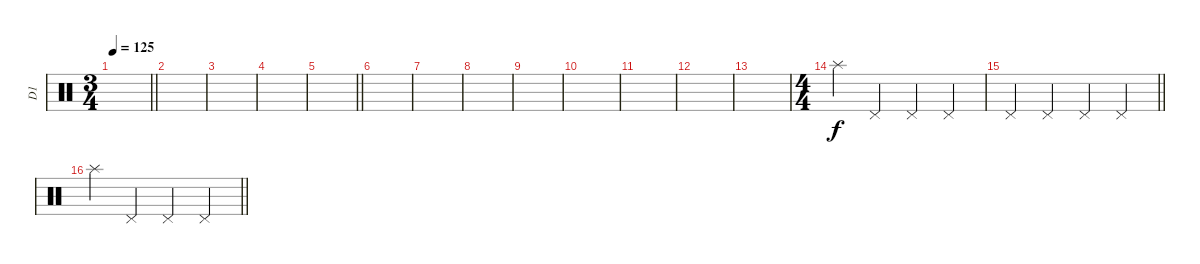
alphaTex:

\track ("D1" "D1") {instrument percussion}
\staff {score}
\articulation defaults
\ts (3 4)
\tempo 125
\clef neutral
\barLineRight lightlight
\ks c
|
\section ("" "")
|
|
|
\barLineRight lightlight
|
\section ("" "")
|
|
|
|
|
|
|
|
\ts (4 4)
"Splash (hit)".4 "Pedal Hi-Hat (hit)".4 "Pedal Hi-Hat (hit)".4 "Pedal Hi-Hat (hit)".4 |
\barLineRight lightlight "Pedal Hi-Hat (hit)".4 "Pedal Hi-Hat (hit)".4 "Pedal Hi-Hat (hit)".4 "Pedal Hi-Hat (hit)".4
|
\barLineRight lightlight "Splash (hit)".4 "Pedal Hi-Hat (hit)".4 "Pedal Hi-Hat (hit)".4 "Pedal Hi-Hat (hit)".4
